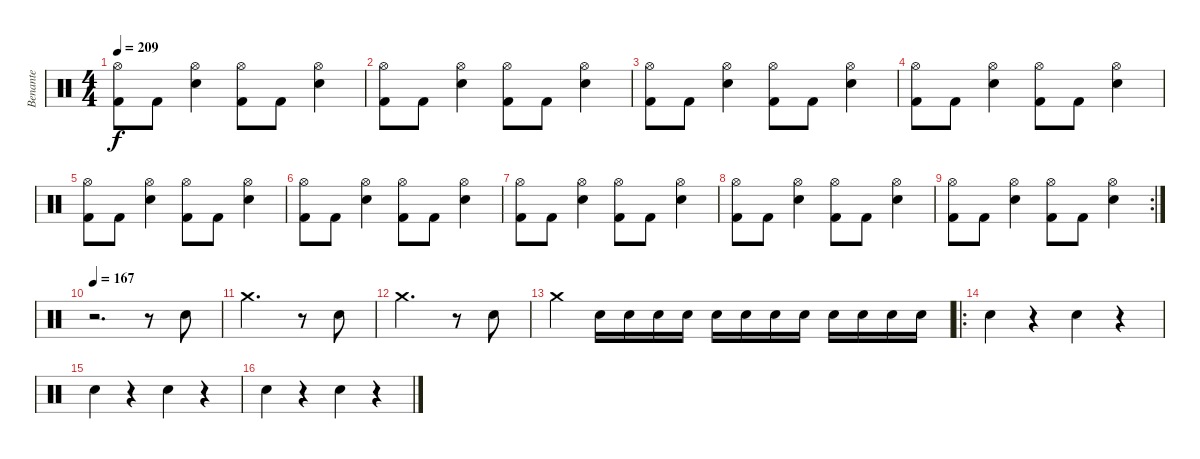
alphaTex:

\track ("Benante" "Benante") {solo instrument percussion}
\staff {score}
\articulation defaults
\ts (4 4)
\tempo 209
\clef neutral
\ks c
("Kick (hit) 2" "Hi-Hat (open)").8{dy f} "Kick (hit) 2".8 ("Electric Snare (hit)" "Hi-Hat (open)").4 ("Kick (hit) 2" "Hi-Hat (open)").8 "Kick (hit) 2".8 ("Electric Snare (hit)" "Hi-Hat (open)").4 |
("Kick (hit) 2" "Hi-Hat (open)").8 "Kick (hit) 2".8 ("Electric Snare (hit)" "Hi-Hat (open)").4 ("Kick (hit) 2" "Hi-Hat (open)").8 "Kick (hit) 2".8 ("Electric Snare (hit)" "Hi-Hat (open)").4 |
("Kick (hit) 2" "Hi-Hat (open)").8 "Kick (hit) 2".8 ("Electric Snare (hit)" "Hi-Hat (open)").4 ("Kick (hit) 2" "Hi-Hat (open)").8 "Kick (hit) 2".8 ("Electric Snare (hit)" "Hi-Hat (open)").4 |
("Kick (hit) 2" "Hi-Hat (open)").8 "Kick (hit) 2".8 ("Electric Snare (hit)" "Hi-Hat (open)").4 ("Kick (hit) 2" "Hi-Hat (open)").8 "Kick (hit) 2".8 ("Electric Snare (hit)" "Hi-Hat (open)").4 |
("Kick (hit) 2" "Hi-Hat (open)").8 "Kick (hit) 2".8 ("Electric Snare (hit)" "Hi-Hat (open)").4 ("Kick (hit) 2" "Hi-Hat (open)").8 "Kick (hit) 2".8 ("Electric Snare (hit)" "Hi-Hat (open)").4 |
("Kick (hit) 2" "Hi-Hat (open)").8 "Kick (hit) 2".8 ("Electric Snare (hit)" "Hi-Hat (open)").4 ("Kick (hit) 2" "Hi-Hat (open)").8 "Kick (hit) 2".8 ("Electric Snare (hit)" "Hi-Hat (open)").4 |
("Kick (hit) 2" "Hi-Hat (open)").8 "Kick (hit) 2".8 ("Electric Snare (hit)" "Hi-Hat (open)").4 ("Kick (hit) 2" "Hi-Hat (open)").8 "Kick (hit) 2".8 ("Electric Snare (hit)" "Hi-Hat (open)").4 |
("Kick (hit) 2" "Hi-Hat (open)").8 "Kick (hit) 2".8 ("Electric Snare (hit)" "Hi-Hat (open)").4 ("Kick (hit) 2" "Hi-Hat (open)").8 "Kick (hit) 2".8 ("Electric Snare (hit)" "Hi-Hat (open)").4 |
\rc 2
("Kick (hit) 2" "Hi-Hat (open)").8 "Kick (hit) 2".8 ("Electric Snare (hit)" "Hi-Hat (open)").4 ("Kick (hit) 2" "Hi-Hat (open)").8 "Kick (hit) 2".8 ("Electric Snare (hit)" "Hi-Hat (open)").4 |
\tempo 167
r.2{d} r.8 "Electric Snare (hit)".8 |
"Crash medium (hit)".2{d} r.8 "Electric Snare (hit)".8 |
"Crash medium (hit)".2{d} r.8 "Electric Snare (hit)".8 |
"Crash medium (hit)".4 "Electric Snare (hit)".16 "Electric Snare (hit)".16 "Electric Snare (hit)".16 "Electric Snare (hit)".16 "Electric Snare (hit)".16 "Electric Snare (hit)".16 "Electric Snare (hit)".16 "Electric Snare (hit)".16 "Electric Snare (hit)".16 "Electric Snare (hit)".16 "Electric Snare (hit)".16 "Electric Snare (hit)".16 |
\ro "Electric Snare (hit)".4
r.4 "Electric Snare (hit)".4 r.4 |
"Electric Snare (hit)".4 r.4 "Electric Snare (hit)".4 r.4 |
"Electric Snare (hit)".4 r.4 "Electric Snare (hit)".4 r.4
